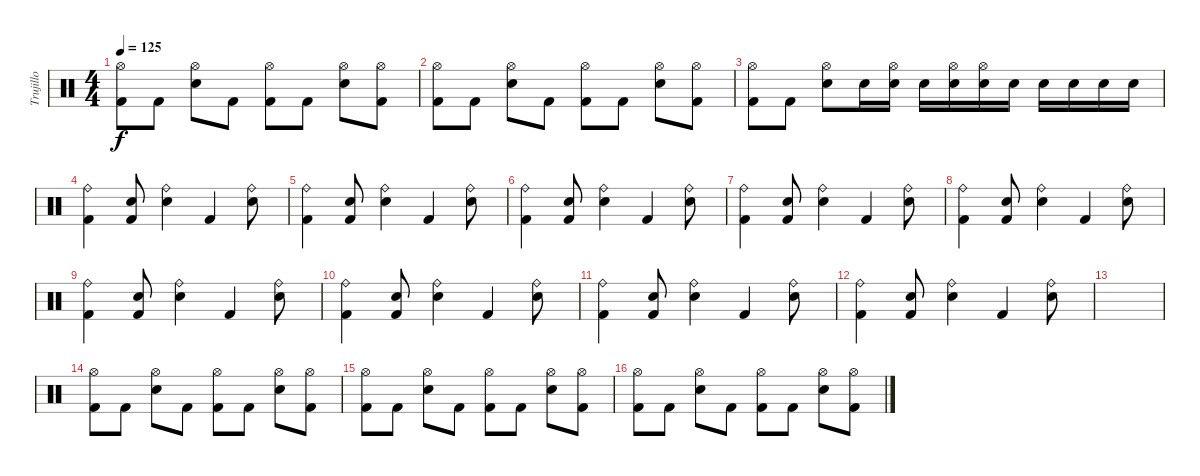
\track ("Trujillo" "Trujillo") {instrument percussion}
\staff {score}
\articulation defaults
\ts (4 4)
\tempo 125
\clef neutral
\ks c
("Hi-Hat (open)" "Kick (hit) 2").8{dy f} "Kick (hit) 2".8 ("Hi-Hat (open)" "Electric Snare (hit)").8 "Kick (hit) 2".8 ("Hi-Hat (open)" "Kick (hit) 2").8 "Kick (hit) 2".8 ("Hi-Hat (open)" "Electric Snare (hit)").8 ("Hi-Hat (open)" "Kick (hit) 2").8 |
("Hi-Hat (open)" "Kick (hit) 2").8 "Kick (hit) 2".8 ("Hi-Hat (open)" "Electric Snare (hit)").8 "Kick (hit) 2".8 ("Hi-Hat (open)" "Kick (hit) 2").8 "Kick (hit) 2".8 ("Hi-Hat (open)" "Electric Snare (hit)").8 ("Hi-Hat (open)" "Kick (hit) 2").8 |
("Hi-Hat (open)" "Kick (hit) 2").8 "Kick (hit) 2".8 ("Hi-Hat (open)" "Electric Snare (hit)").8 "Electric Snare (hit)".16 ("Hi-Hat (open)"{x} "Electric Snare (hit)").16 "Electric Snare (hit)".16 ("Hi-Hat (open)"{x} "Electric Snare (hit)").16 ("Hi-Hat (open)"{x} "Electric Snare (hit)").16 "Electric Snare (hit)".16 "Electric Snare (hit)".16 "Electric Snare (hit)".16 "Electric Snare (hit)".16 "Electric Snare (hit)".16 |
("Ride (bell)" "Kick (hit) 2").4 ("Snare (hit)" "Kick (hit) 2").8 ("Ride (bell)" "Electric Snare (hit)").4 "Kick (hit) 2".4 ("Ride (bell)" "Electric Snare (hit)").8 |
("Ride (bell)" "Kick (hit) 2").4 ("Snare (hit)" "Kick (hit) 2").8 ("Ride (bell)" "Electric Snare (hit)").4 "Kick (hit) 2".4 ("Ride (bell)" "Electric Snare (hit)").8 |
("Ride (bell)" "Kick (hit) 2").4 ("Snare (hit)" "Kick (hit) 2").8 ("Ride (bell)" "Electric Snare (hit)").4 "Kick (hit) 2".4 ("Ride (bell)" "Electric Snare (hit)").8 |
("Ride (bell)" "Kick (hit) 2").4 ("Snare (hit)" "Kick (hit) 2").8 ("Ride (bell)" "Electric Snare (hit)").4 "Kick (hit) 2".4 ("Ride (bell)" "Electric Snare (hit)").8 |
("Ride (bell)" "Kick (hit) 2").4 ("Snare (hit)" "Kick (hit) 2").8 ("Ride (bell)" "Electric Snare (hit)").4 "Kick (hit) 2".4 ("Ride (bell)" "Electric Snare (hit)").8 |
("Ride (bell)" "Kick (hit) 2").4 ("Snare (hit)" "Kick (hit) 2").8 ("Ride (bell)" "Electric Snare (hit)").4 "Kick (hit) 2".4 ("Ride (bell)" "Electric Snare (hit)").8 |
("Ride (bell)" "Kick (hit) 2").4 ("Snare (hit)" "Kick (hit) 2").8 ("Ride (bell)" "Electric Snare (hit)").4 "Kick (hit) 2".4 ("Ride (bell)" "Electric Snare (hit)").8 |
("Ride (bell)" "Kick (hit) 2").4 ("Snare (hit)" "Kick (hit) 2").8 ("Ride (bell)" "Electric Snare (hit)").4 "Kick (hit) 2".4 ("Ride (bell)" "Electric Snare (hit)").8 |
("Ride (bell)" "Kick (hit) 2").4 ("Snare (hit)" "Kick (hit) 2").8 ("Ride (bell)" "Electric Snare (hit)").4 "Kick (hit) 2".4 ("Ride (bell)" "Electric Snare (hit)").8 |
|
("Hi-Hat (open)" "Kick (hit) 2").8 "Kick (hit) 2".8 ("Hi-Hat (open)" "Electric Snare (hit)").8 "Kick (hit) 2".8 ("Hi-Hat (open)" "Kick (hit) 2").8 "Kick (hit) 2".8 ("Hi-Hat (open)" "Electric Snare (hit)").8 ("Hi-Hat (open)" "Kick (hit) 2").8 |
("Hi-Hat (open)" "Kick (hit) 2").8 "Kick (hit) 2".8 ("Hi-Hat (open)" "Electric Snare (hit)").8 "Kick (hit) 2".8 ("Hi-Hat (open)" "Kick (hit) 2").8 "Kick (hit) 2".8 ("Hi-Hat (open)" "Electric Snare (hit)").8 ("Hi-Hat (open)" "Kick (hit) 2").8 |
("Hi-Hat (open)" "Kick (hit) 2").8 "Kick (hit) 2".8 ("Hi-Hat (open)" "Electric Snare (hit)").8 "Kick (hit) 2".8 ("Hi-Hat (open)" "Kick (hit) 2").8 "Kick (hit) 2".8 ("Hi-Hat (open)" "Electric Snare (hit)").8 ("Hi-Hat (open)" "Kick (hit) 2").8
